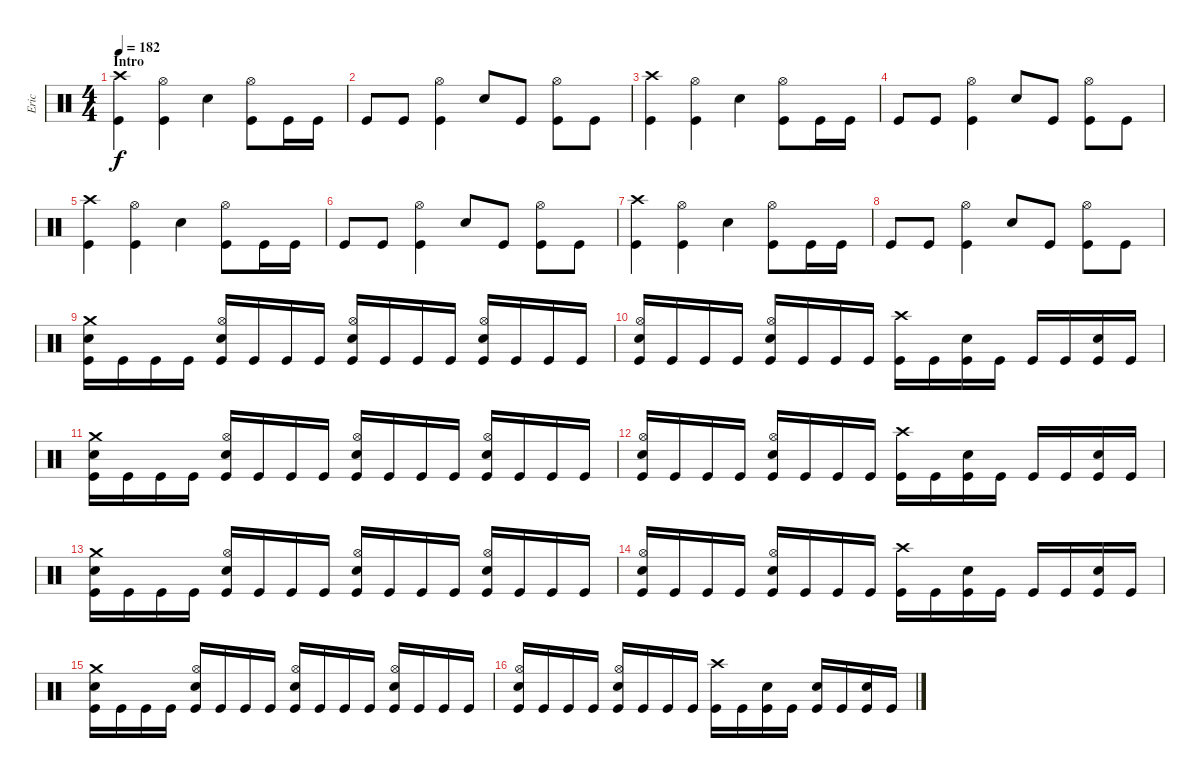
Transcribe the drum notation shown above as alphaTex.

\track ("Eric" "Eric") {instrument percussion}
\staff {score}
\articulation defaults
\ts (4 4)
\section ("" "Intro")
\tempo 182
\clef neutral
\ks c
("Crash high (hit)" "Kick (hit)").4{dy f} ("Hi-Hat (open)" "Kick (hit)").4 "Snare (hit) 2".4 ("Hi-Hat (open)" "Kick (hit)").8 "Kick (hit)".16 "Kick (hit)".16 |
"Kick (hit)".8 "Kick (hit)".8 ("Hi-Hat (open)" "Kick (hit)").4 "Snare (hit) 2".8 "Kick (hit)".8 ("Hi-Hat (open)" "Kick (hit)").8 "Kick (hit)".8 |
("Crash high (hit)" "Kick (hit)").4 ("Hi-Hat (open)" "Kick (hit)").4 "Snare (hit) 2".4 ("Hi-Hat (open)" "Kick (hit)").8 "Kick (hit)".16 "Kick (hit)".16 |
"Kick (hit)".8 "Kick (hit)".8 ("Hi-Hat (open)" "Kick (hit)").4 "Snare (hit) 2".8 "Kick (hit)".8 ("Hi-Hat (open)" "Kick (hit)").8 "Kick (hit)".8 |
("Crash high (hit)" "Kick (hit)").4 ("Hi-Hat (open)" "Kick (hit)").4 "Snare (hit) 2".4 ("Hi-Hat (open)" "Kick (hit)").8 "Kick (hit)".16 "Kick (hit)".16 |
"Kick (hit)".8 "Kick (hit)".8 ("Hi-Hat (open)" "Kick (hit)").4 "Snare (hit) 2".8 "Kick (hit)".8 ("Hi-Hat (open)" "Kick (hit)").8 "Kick (hit)".8 |
("Crash high (hit)" "Kick (hit)").4 ("Hi-Hat (open)" "Kick (hit)").4 "Snare (hit) 2".4 ("Hi-Hat (open)" "Kick (hit)").8 "Kick (hit)".16 "Kick (hit)".16 |
"Kick (hit)".8 "Kick (hit)".8 ("Hi-Hat (open)" "Kick (hit)").4 "Snare (hit) 2".8 "Kick (hit)".8 ("Hi-Hat (open)" "Kick (hit)").8 "Kick (hit)".8 |
("Crash medium (hit)" "Snare (hit) 2" "Kick (hit)").16 "Kick (hit)".16 "Kick (hit)".16 "Kick (hit)".16 ("Hi-Hat (open)" "Snare (hit) 2" "Kick (hit)").16 "Kick (hit)".16 "Kick (hit)".16 "Kick (hit)".16 ("Hi-Hat (open)" "Snare (hit) 2" "Kick (hit)").16 "Kick (hit)".16 "Kick (hit)".16 "Kick (hit)".16 ("Hi-Hat (open)" "Snare (hit) 2" "Kick (hit)").16 "Kick (hit)".16 "Kick (hit)".16 "Kick (hit)".16 |
("Hi-Hat (open)" "Snare (hit) 2" "Kick (hit)").16 "Kick (hit)".16 "Kick (hit)".16 "Kick (hit)".16 ("Hi-Hat (open)" "Snare (hit) 2" "Kick (hit)").16 "Kick (hit)".16 "Kick (hit)".16 "Kick (hit)".16 ("Crash high (hit)" "Kick (hit)").16 "Kick (hit)".16 ("Snare (hit) 2" "Kick (hit)").16 "Kick (hit)".16 "Kick (hit)".16 "Kick (hit)".16 ("Snare (hit) 2" "Kick (hit)").16 "Kick (hit)".16 |
("Crash medium (hit)" "Snare (hit) 2" "Kick (hit)").16 "Kick (hit)".16 "Kick (hit)".16 "Kick (hit)".16 ("Hi-Hat (open)" "Snare (hit) 2" "Kick (hit)").16 "Kick (hit)".16 "Kick (hit)".16 "Kick (hit)".16 ("Hi-Hat (open)" "Snare (hit) 2" "Kick (hit)").16 "Kick (hit)".16 "Kick (hit)".16 "Kick (hit)".16 ("Hi-Hat (open)" "Snare (hit) 2" "Kick (hit)").16 "Kick (hit)".16 "Kick (hit)".16 "Kick (hit)".16 |
("Hi-Hat (open)" "Snare (hit) 2" "Kick (hit)").16 "Kick (hit)".16 "Kick (hit)".16 "Kick (hit)".16 ("Hi-Hat (open)" "Snare (hit) 2" "Kick (hit)").16 "Kick (hit)".16 "Kick (hit)".16 "Kick (hit)".16 ("Crash high (hit)" "Kick (hit)").16 "Kick (hit)".16 ("Snare (hit) 2" "Kick (hit)").16 "Kick (hit)".16 "Kick (hit)".16 "Kick (hit)".16 ("Snare (hit) 2" "Kick (hit)").16 "Kick (hit)".16 |
("Crash medium (hit)" "Snare (hit) 2" "Kick (hit)").16 "Kick (hit)".16 "Kick (hit)".16 "Kick (hit)".16 ("Hi-Hat (open)" "Snare (hit) 2" "Kick (hit)").16 "Kick (hit)".16 "Kick (hit)".16 "Kick (hit)".16 ("Hi-Hat (open)" "Snare (hit) 2" "Kick (hit)").16 "Kick (hit)".16 "Kick (hit)".16 "Kick (hit)".16 ("Hi-Hat (open)" "Snare (hit) 2" "Kick (hit)").16 "Kick (hit)".16 "Kick (hit)".16 "Kick (hit)".16 |
("Hi-Hat (open)" "Snare (hit) 2" "Kick (hit)").16 "Kick (hit)".16 "Kick (hit)".16 "Kick (hit)".16 ("Hi-Hat (open)" "Snare (hit) 2" "Kick (hit)").16 "Kick (hit)".16 "Kick (hit)".16 "Kick (hit)".16 ("Crash high (hit)" "Kick (hit)").16 "Kick (hit)".16 ("Snare (hit) 2" "Kick (hit)").16 "Kick (hit)".16 "Kick (hit)".16 "Kick (hit)".16 ("Snare (hit) 2" "Kick (hit)").16 "Kick (hit)".16 |
("Crash medium (hit)" "Snare (hit) 2" "Kick (hit)").16 "Kick (hit)".16 "Kick (hit)".16 "Kick (hit)".16 ("Hi-Hat (open)" "Snare (hit) 2" "Kick (hit)").16 "Kick (hit)".16 "Kick (hit)".16 "Kick (hit)".16 ("Hi-Hat (open)" "Snare (hit) 2" "Kick (hit)").16 "Kick (hit)".16 "Kick (hit)".16 "Kick (hit)".16 ("Hi-Hat (open)" "Snare (hit) 2" "Kick (hit)").16 "Kick (hit)".16 "Kick (hit)".16 "Kick (hit)".16 |
("Hi-Hat (open)" "Snare (hit) 2" "Kick (hit)").16 "Kick (hit)".16 "Kick (hit)".16 "Kick (hit)".16 ("Hi-Hat (open)" "Snare (hit) 2" "Kick (hit)").16 "Kick (hit)".16 "Kick (hit)".16 "Kick (hit)".16 ("Crash high (hit)" "Kick (hit)").16 "Kick (hit)".16 ("Snare (hit) 2" "Kick (hit)").16 "Kick (hit)".16 ("Snare (hit) 2" "Kick (hit)").16 "Kick (hit)".16 ("Snare (hit) 2" "Kick (hit)").16 "Kick (hit)".16
